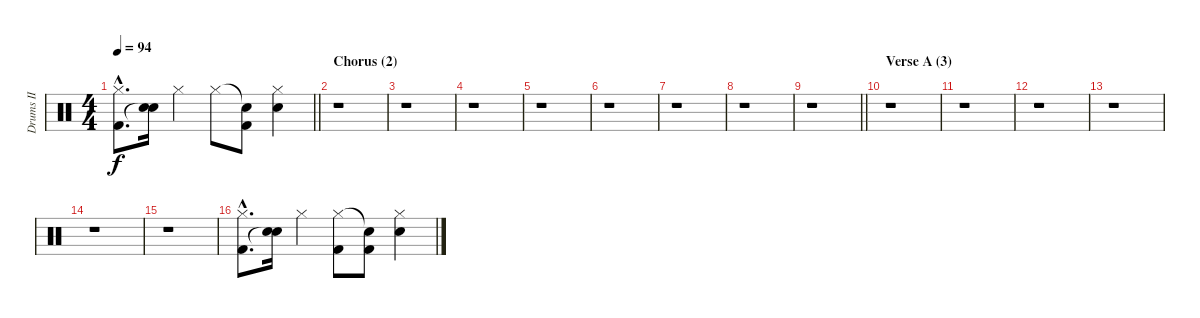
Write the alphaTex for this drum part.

\track ("Drums II" "Drums II") {instrument percussion}
\staff {score}
\articulation defaults
\ts (4 4)
\tempo 94
\clef neutral
\barLineRight lightlight
\ks aminor
("Hi-Hat (closed)"{hac} "Kick (hit) 2"{hac}).8{d dy f} ("Electric Snare (hit)" "Snare (hit)"{t}).16 "Hi-Hat (closed)".4 "Hi-Hat (closed)".8 ("Snare (hit)"{t} "Kick (hit) 2").8 ("Hi-Hat (closed)" "Electric Snare (hit)").4 |
\section ("" "Chorus (2)")
r.1 |
r.1 |
r.1 |
r.1 |
r.1 |
r.1 |
r.1 |
\barLineRight lightlight
r.1 |
\section ("" "Verse A (3)")
r.1 |
r.1 |
r.1 |
r.1 |
r.1 |
r.1 |
("Hi-Hat (closed)"{hac} "Kick (hit) 2"{hac}).8{d} ("Electric Snare (hit)" "Snare (hit)"{t}).16 "Hi-Hat (closed)".4 ("Hi-Hat (closed)" "Kick (hit) 2").8 ("Snare (hit)"{t} "Kick (hit) 2").8 ("Hi-Hat (closed)" "Electric Snare (hit)").4
